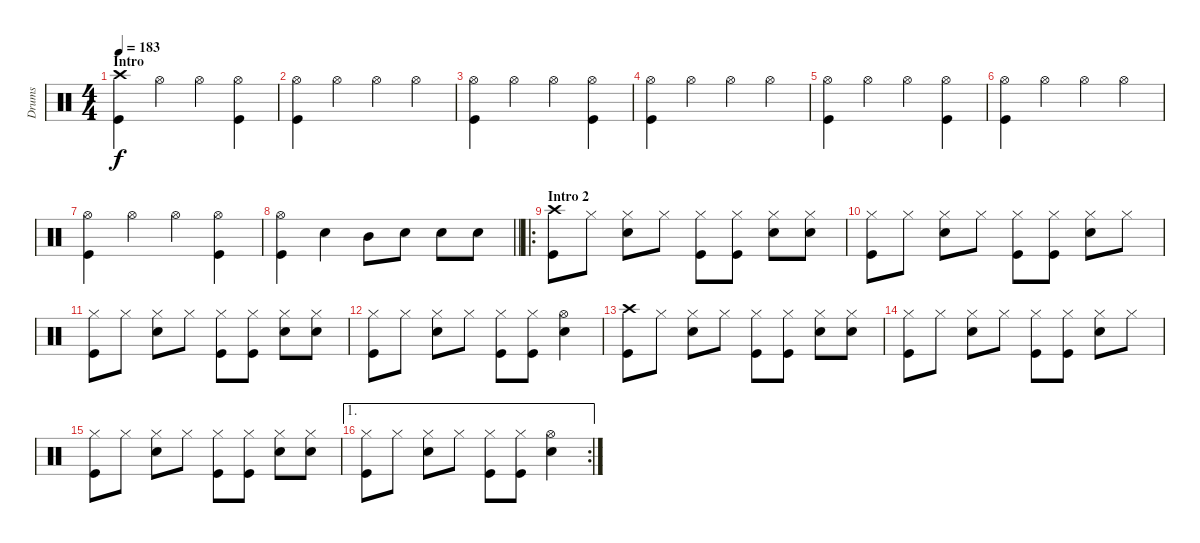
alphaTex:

\track ("Drums" "Drums") {instrument percussion}
\staff {score}
\articulation defaults
\ts (4 4)
\section ("" "Intro")
\tempo 183
\clef neutral
\ks c
("Crash high (hit)" "Kick (hit)").4{dy f} "Hi-Hat (open)".4 "Hi-Hat (open)".4 ("Hi-Hat (open)" "Kick (hit)").4 |
("Hi-Hat (open)" "Kick (hit)").4 "Hi-Hat (open)".4 "Hi-Hat (open)".4 "Hi-Hat (open)".4 |
("Hi-Hat (open)" "Kick (hit)").4 "Hi-Hat (open)".4 "Hi-Hat (open)".4 ("Hi-Hat (open)" "Kick (hit)").4 |
("Hi-Hat (open)" "Kick (hit)").4 "Hi-Hat (open)".4 "Hi-Hat (open)".4 "Hi-Hat (open)".4 |
("Hi-Hat (open)" "Kick (hit)").4 "Hi-Hat (open)".4 "Hi-Hat (open)".4 ("Hi-Hat (open)" "Kick (hit)").4 |
("Hi-Hat (open)" "Kick (hit)").4 "Hi-Hat (open)".4 "Hi-Hat (open)".4 "Hi-Hat (open)".4 |
("Hi-Hat (open)" "Kick (hit)").4 "Hi-Hat (open)".4 "Hi-Hat (open)".4 ("Hi-Hat (open)" "Kick (hit)").4 |
\barLineRight lightlight
("Hi-Hat (open)" "Kick (hit)").4 "Electric Snare (hit)".4 "Mid Tom (hit)".8 "Electric Snare (hit)".8 "Electric Snare (hit)".8 "Electric Snare (hit)".8 |
\ro
\section ("" "Intro 2")
("Crash high (hit)" "Kick (hit)").8 "Hi-Hat (closed)".8 ("Hi-Hat (closed)" "Electric Snare (hit)").8 "Hi-Hat (closed)".8 ("Hi-Hat (closed)" "Kick (hit)").8 ("Hi-Hat (closed)" "Kick (hit)").8 ("Hi-Hat (closed)" "Electric Snare (hit)").8 ("Hi-Hat (closed)" "Electric Snare (hit)").8 |
("Hi-Hat (closed)" "Kick (hit)").8 "Hi-Hat (closed)".8 ("Hi-Hat (closed)" "Electric Snare (hit)").8 "Hi-Hat (closed)".8 ("Hi-Hat (closed)" "Kick (hit)").8 ("Hi-Hat (closed)" "Kick (hit)").8 ("Hi-Hat (closed)" "Electric Snare (hit)").8 "Hi-Hat (closed)".8 |
("Hi-Hat (closed)" "Kick (hit)").8 "Hi-Hat (closed)".8 ("Hi-Hat (closed)" "Electric Snare (hit)").8 "Hi-Hat (closed)".8 ("Hi-Hat (closed)" "Kick (hit)").8 ("Hi-Hat (closed)" "Kick (hit)").8 ("Hi-Hat (closed)" "Electric Snare (hit)").8 ("Hi-Hat (closed)" "Electric Snare (hit)").8 |
("Hi-Hat (closed)" "Kick (hit)").8 "Hi-Hat (closed)".8 ("Hi-Hat (closed)" "Electric Snare (hit)").8 "Hi-Hat (closed)".8 ("Hi-Hat (closed)" "Kick (hit)").8 ("Hi-Hat (closed)" "Kick (hit)").8 ("Hi-Hat (open)" "Electric Snare (hit)").4 |
("Crash high (hit)" "Kick (hit)").8 "Hi-Hat (closed)".8 ("Hi-Hat (closed)" "Electric Snare (hit)").8 "Hi-Hat (closed)".8 ("Hi-Hat (closed)" "Kick (hit)").8 ("Hi-Hat (closed)" "Kick (hit)").8 ("Hi-Hat (closed)" "Electric Snare (hit)").8 ("Hi-Hat (closed)" "Electric Snare (hit)").8 |
("Hi-Hat (closed)" "Kick (hit)").8 "Hi-Hat (closed)".8 ("Hi-Hat (closed)" "Electric Snare (hit)").8 "Hi-Hat (closed)".8 ("Hi-Hat (closed)" "Kick (hit)").8 ("Hi-Hat (closed)" "Kick (hit)").8 ("Hi-Hat (closed)" "Electric Snare (hit)").8 "Hi-Hat (closed)".8 |
("Hi-Hat (closed)" "Kick (hit)").8 "Hi-Hat (closed)".8 ("Hi-Hat (closed)" "Electric Snare (hit)").8 "Hi-Hat (closed)".8 ("Hi-Hat (closed)" "Kick (hit)").8 ("Hi-Hat (closed)" "Kick (hit)").8 ("Hi-Hat (closed)" "Electric Snare (hit)").8 ("Hi-Hat (closed)" "Electric Snare (hit)").8 |
\ae 1
\rc 2
("Hi-Hat (closed)" "Kick (hit)").8 "Hi-Hat (closed)".8 ("Hi-Hat (closed)" "Electric Snare (hit)").8 "Hi-Hat (closed)".8 ("Hi-Hat (closed)" "Kick (hit)").8 ("Hi-Hat (closed)" "Kick (hit)").8 ("Hi-Hat (open)" "Electric Snare (hit)").4
